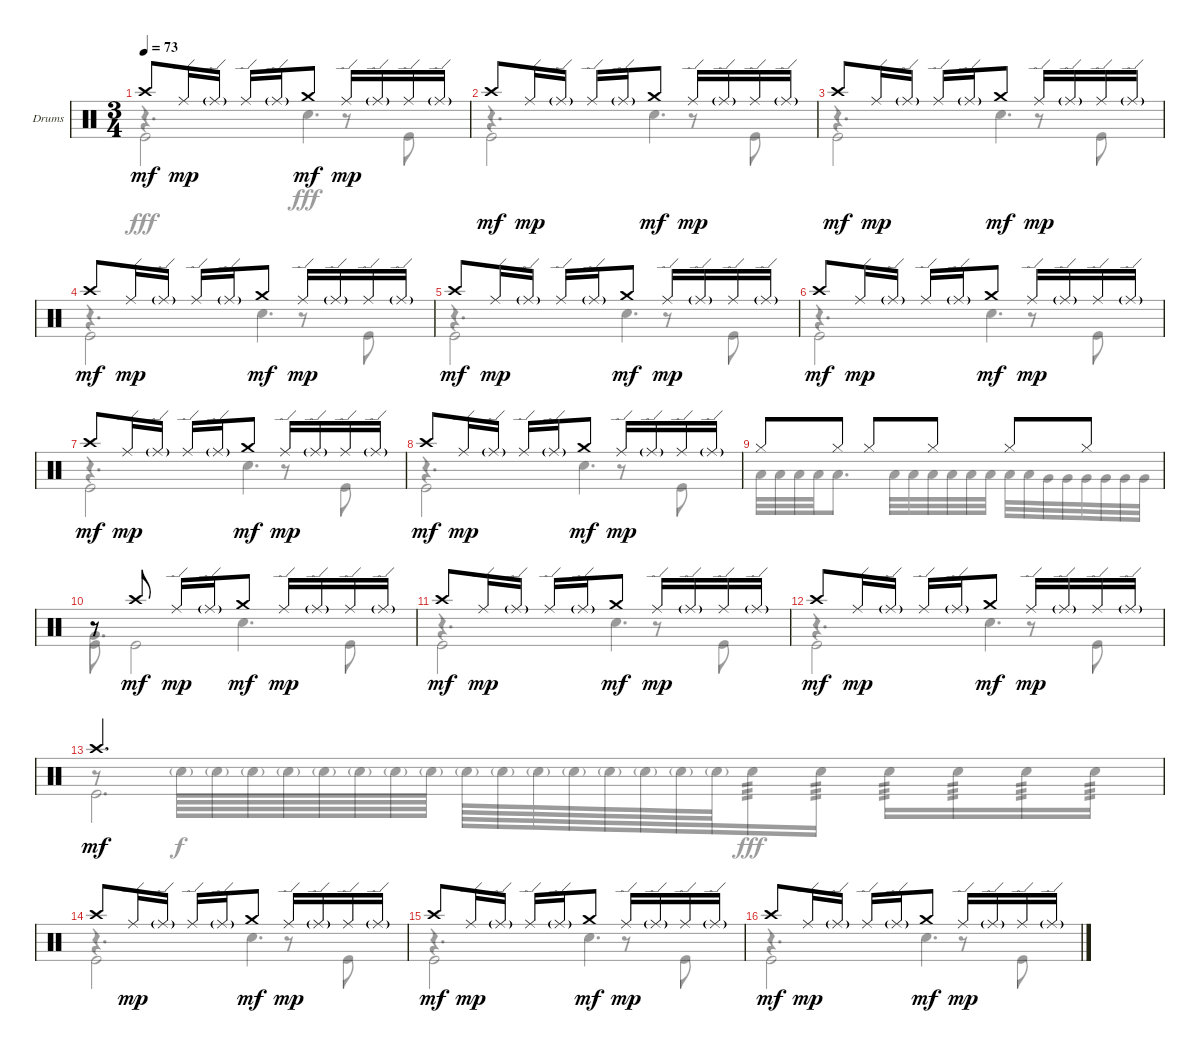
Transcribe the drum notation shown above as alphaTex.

\defaultSystemsLayout 4
\bracketExtendMode groupsimilarinstruments
\firstSystemTrackNameOrientation horizontal
\otherSystemsTrackNameOrientation horizontal
\track ("Drumkit" "Drums") {instrument percussion}
\staff {score}
\articulation defaults
\voice
\ts (3 4)
\tempo 73
\clef neutral
\ks c "Crash high (hit)".8{dy mf} "Ride (edge)".16{dy mp} "Ride (edge)"{g}.16 "Ride (edge)".16 "Ride (edge)"{g}.16 "Crash medium (hit)".8{dy mf} "Ride (edge)".16{dy mp} "Ride (edge)"{g}.16 "Ride (edge)".16 "Ride (edge)"{g}.16
|
"Crash high (hit)".8{dy mf} "Ride (edge)".16{dy mp} "Ride (edge)"{g}.16 "Ride (edge)".16 "Ride (edge)"{g}.16 "Crash medium (hit)".8{dy mf} "Ride (edge)".16{dy mp} "Ride (edge)"{g}.16 "Ride (edge)".16 "Ride (edge)"{g}.16 |
"Crash high (hit)".8{dy mf} "Ride (edge)".16{dy mp} "Ride (edge)"{g}.16 "Ride (edge)".16 "Ride (edge)"{g}.16 "Crash medium (hit)".8{dy mf} "Ride (edge)".16{dy mp} "Ride (edge)"{g}.16 "Ride (edge)".16 "Ride (edge)"{g}.16 |
"Crash high (hit)".8{dy mf} "Ride (edge)".16{dy mp} "Ride (edge)"{g}.16 "Ride (edge)".16 "Ride (edge)"{g}.16 "Crash medium (hit)".8{dy mf} "Ride (edge)".16{dy mp} "Ride (edge)"{g}.16 "Ride (edge)".16 "Ride (edge)"{g}.16 |
"Crash high (hit)".8{dy mf} "Ride (edge)".16{dy mp} "Ride (edge)"{g}.16 "Ride (edge)".16 "Ride (edge)"{g}.16 "Crash medium (hit)".8{dy mf} "Ride (edge)".16{dy mp} "Ride (edge)"{g}.16 "Ride (edge)".16 "Ride (edge)"{g}.16 |
"Crash high (hit)".8{dy mf} "Ride (edge)".16{dy mp} "Ride (edge)"{g}.16 "Ride (edge)".16 "Ride (edge)"{g}.16 "Crash medium (hit)".8{dy mf} "Ride (edge)".16{dy mp} "Ride (edge)"{g}.16 "Ride (edge)".16 "Ride (edge)"{g}.16 |
"Crash high (hit)".8{dy mf} "Ride (edge)".16{dy mp} "Ride (edge)"{g}.16 "Ride (edge)".16 "Ride (edge)"{g}.16 "Crash medium (hit)".8{dy mf} "Ride (edge)".16{dy mp} "Ride (edge)"{g}.16 "Ride (edge)".16 "Ride (edge)"{g}.16 |
"Crash high (hit)".8{dy mf} "Ride (edge)".16{dy mp} "Ride (edge)"{g}.16 "Ride (edge)".16 "Ride (edge)"{g}.16 "Crash medium (hit)".8{dy mf} "Ride (edge)".16{dy mp} "Ride (edge)"{g}.16 "Ride (edge)".16 "Ride (edge)"{g}.16 |
"Hi-Hat (closed)".8 "Hi-Hat (closed)".8 "Hi-Hat (closed)".8 "Hi-Hat (closed)".8 "Hi-Hat (closed)".8 "Hi-Hat (closed)".8 |
r.8 "Crash high (hit)".8{dy mf} "Ride (edge)".16{dy mp} "Ride (edge)"{g}.16 "Crash medium (hit)".8{dy mf} "Ride (edge)".16{dy mp} "Ride (edge)"{g}.16 "Ride (edge)".16 "Ride (edge)"{g}.16 |
"Crash high (hit)".8{dy mf} "Ride (edge)".16{dy mp} "Ride (edge)"{g}.16 "Ride (edge)".16 "Ride (edge)"{g}.16 "Crash medium (hit)".8{dy mf} "Ride (edge)".16{dy mp} "Ride (edge)"{g}.16 "Ride (edge)".16 "Ride (edge)"{g}.16 |
"Crash high (hit)".8{dy mf} "Ride (edge)".16{dy mp} "Ride (edge)"{g}.16 "Ride (edge)".16 "Ride (edge)"{g}.16 "Crash medium (hit)".8{dy mf} "Ride (edge)".16{dy mp} "Ride (edge)"{g}.16 "Ride (edge)".16 "Ride (edge)"{g}.16 |
"Crash high (hit)".2{d dy mf} |
"Crash high (hit)".8 "Ride (edge)".16{dy mp} "Ride (edge)"{g}.16 "Ride (edge)".16 "Ride (edge)"{g}.16 "Crash medium (hit)".8{dy mf} "Ride (edge)".16{dy mp} "Ride (edge)"{g}.16 "Ride (edge)".16 "Ride (edge)"{g}.16 |
"Crash high (hit)".8{dy mf} "Ride (edge)".16{dy mp} "Ride (edge)"{g}.16 "Ride (edge)".16 "Ride (edge)"{g}.16 "Crash medium (hit)".8{dy mf} "Ride (edge)".16{dy mp} "Ride (edge)"{g}.16 "Ride (edge)".16 "Ride (edge)"{g}.16 |
"Crash high (hit)".8{dy mf} "Ride (edge)".16{dy mp} "Ride (edge)"{g}.16 "Ride (edge)".16 "Ride (edge)"{g}.16 "Crash medium (hit)".8{dy mf} "Ride (edge)".16{dy mp} "Ride (edge)"{g}.16 "Ride (edge)".16 "Ride (edge)"{g}.16
\voice
\clef neutral
\ottava regular
\simile none
\ks c
r.4{d dy fff} "Snare (hit) 2".4{d} |
r.4{d} "Snare (hit) 2".4{d} |
r.4{d} "Snare (hit) 2".4{d} |
r.4{d} "Snare (hit) 2".4{d} |
r.4{d} "Snare (hit) 2".4{d} |
r.4{d} "Snare (hit) 2".4{d} |
r.4{d} "Snare (hit) 2".4{d} |
r.4{d} "Snare (hit) 2".4{d} |
"Low Tom (hit)".32 "Low Tom (hit)".32 "Low Tom (hit)".32 "Low Tom (hit)".32 "Low Tom (hit)".8{d} "Low Tom (hit)".32 "Low Tom (hit)".32 "Low Tom (hit)".32 "Low Tom (hit)".32 "Low Tom (hit)".32 "Low Tom (hit)".32 "Low Tom (hit)".32 "Low Tom (hit)".32 "Very Low Tom (hit)".32 "Very Low Tom (hit)".32 "Very Low Tom (hit)".32 "Very Low Tom (hit)".32 "Very Low Tom (hit)".32 "Very Low Tom (hit)".32 |
"Very Low Tom (hit)".4{d} "Snare (hit) 2".4{d} |
r.4{d} "Snare (hit) 2".4{d} |
r.4{d} "Snare (hit) 2".4{d} |
r.8 "Snare (hit) 2"{g}.64{dy f} "Snare (hit) 2"{g}.64 "Snare (hit) 2"{g}.64 "Snare (hit) 2"{g}.64 "Snare (hit) 2"{g}.64 "Snare (hit) 2"{g}.64 "Snare (hit) 2"{g}.64 "Snare (hit) 2"{g}.64 "Snare (hit) 2"{g}.64 "Snare (hit) 2"{g}.64 "Snare (hit) 2"{g}.64 "Snare (hit) 2"{g}.64 "Snare (hit) 2"{g}.64 "Snare (hit) 2"{g}.64 "Snare (hit) 2"{g}.64 "Snare (hit) 2"{g}.64 "Snare (hit) 2".16{tp 3 dy fff} "Snare (hit) 2".16{tp 3} "Snare (hit) 2".16{tp 3} "Snare (hit) 2".16{tp 3} "Snare (hit) 2".16{tp 3} "Snare (hit) 2".16{tp 3} |
r.4{d} "Snare (hit) 2".4{d} |
r.4{d} "Snare (hit) 2".4{d} |
r.4{d} "Snare (hit) 2".4{d}
\voice
\clef neutral
\ottava regular
\simile none
\ks c "Kick (hit)".2{dy fff}
r.8 "Kick (hit)".8 |
"Kick (hit)".2 r.8 "Kick (hit)".8 |
"Kick (hit)".2 r.8 "Kick (hit)".8 |
"Kick (hit)".2 r.8 "Kick (hit)".8 |
"Kick (hit)".2 r.8 "Kick (hit)".8 |
"Kick (hit)".2 r.8 "Kick (hit)".8 |
"Kick (hit)".2 r.8 "Kick (hit)".8 |
"Kick (hit)".2 r.8 "Kick (hit)".8 |
|
"Kick (hit)".8 "Kick (hit)".2 "Kick (hit)".8 |
"Kick (hit)".2 r.8 "Kick (hit)".8 |
"Kick (hit)".2 r.8 "Kick (hit)".8 |
"Kick (hit)".2{d} |
"Kick (hit)".2 r.8 "Kick (hit)".8 |
"Kick (hit)".2 r.8 "Kick (hit)".8 |
"Kick (hit)".2 r.8 "Kick (hit)".8
